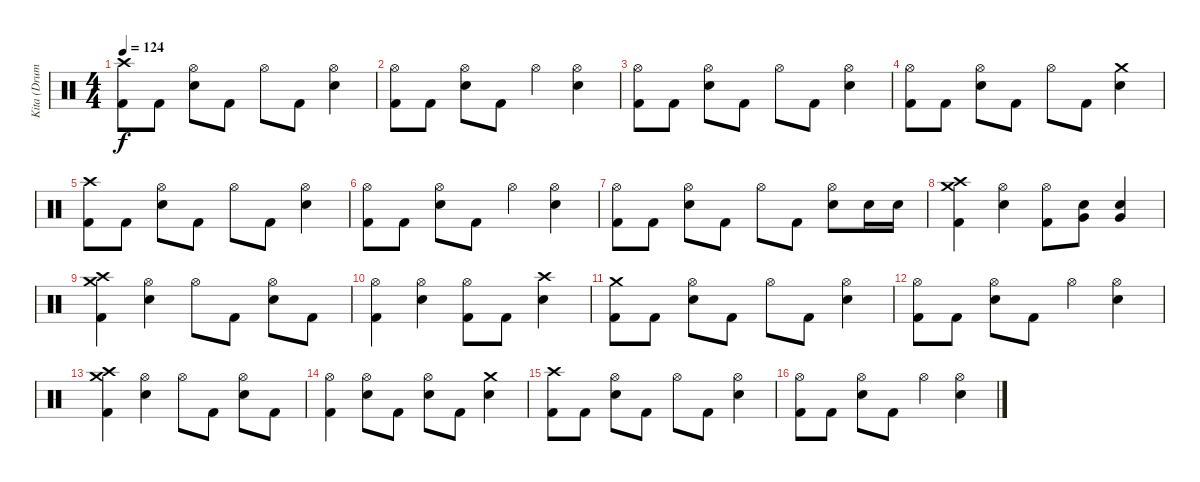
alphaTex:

\track ("Kita (Drums)" "Kita (Drum") {instrument percussion}
\staff {score}
\articulation defaults
\ts (4 4)
\tempo 124
\clef neutral
\ks c
("Crash high (hit)" "Kick (hit) 2").8{dy f} "Kick (hit) 2".8 ("Hi-Hat (open)" "Electric Snare (hit)").8 "Kick (hit) 2".8 "Hi-Hat (open)".8 "Kick (hit) 2".8 ("Hi-Hat (open)" "Electric Snare (hit)").4 |
("Hi-Hat (open)" "Kick (hit) 2").8 "Kick (hit) 2".8 ("Hi-Hat (open)" "Electric Snare (hit)").8 "Kick (hit) 2".8 "Hi-Hat (open)".4 ("Hi-Hat (open)" "Electric Snare (hit)").4 |
("Hi-Hat (open)" "Kick (hit) 2").8 "Kick (hit) 2".8 ("Hi-Hat (open)" "Electric Snare (hit)").8 "Kick (hit) 2".8 "Hi-Hat (open)".8 "Kick (hit) 2".8 ("Hi-Hat (open)" "Electric Snare (hit)").4 |
("Hi-Hat (open)" "Kick (hit) 2").8 "Kick (hit) 2".8 ("Hi-Hat (open)" "Electric Snare (hit)").8 "Kick (hit) 2".8 "Hi-Hat (open)".8 "Kick (hit) 2".8 ("Crash medium (hit)" "Electric Snare (hit)").4 |
("Crash high (hit)" "Kick (hit) 2").8 "Kick (hit) 2".8 ("Hi-Hat (open)" "Electric Snare (hit)").8 "Kick (hit) 2".8 "Hi-Hat (open)".8 "Kick (hit) 2".8 ("Hi-Hat (open)" "Electric Snare (hit)").4 |
("Hi-Hat (open)" "Kick (hit) 2").8 "Kick (hit) 2".8 ("Hi-Hat (open)" "Electric Snare (hit)").8 "Kick (hit) 2".8 "Hi-Hat (open)".4 ("Hi-Hat (open)" "Electric Snare (hit)").4 |
("Hi-Hat (open)" "Kick (hit) 2").8 "Kick (hit) 2".8 ("Hi-Hat (open)" "Electric Snare (hit)").8 "Kick (hit) 2".8 "Hi-Hat (open)".8 "Kick (hit) 2".8 ("Hi-Hat (open)" "Electric Snare (hit)").8 "Electric Snare (hit)".16 "Electric Snare (hit)".16 |
("Crash medium (hit)" "Crash high (hit)" "Kick (hit) 2").4 ("Hi-Hat (open)" "Electric Snare (hit)").4 ("Hi-Hat (open)" "Kick (hit) 2").8 ("Very Low Tom (hit)" "Electric Snare (hit)").8 ("Very Low Tom (hit)" "Electric Snare (hit)").4 |
("Crash medium (hit)" "Crash high (hit)" "Kick (hit) 2").4 ("Hi-Hat (open)" "Electric Snare (hit)").4 "Hi-Hat (open)".8 "Kick (hit) 2".8 ("Hi-Hat (open)" "Electric Snare (hit)").8 "Kick (hit) 2".8 |
("Hi-Hat (open)" "Kick (hit) 2").4 ("Hi-Hat (open)" "Electric Snare (hit)").4 ("Hi-Hat (open)" "Kick (hit) 2").8 "Kick (hit) 2".8 ("Crash high (hit)" "Electric Snare (hit)").4 |
("Crash medium (hit)" "Kick (hit) 2").8 "Kick (hit) 2".8 ("Hi-Hat (open)" "Electric Snare (hit)").8 "Kick (hit) 2".8 "Hi-Hat (open)".8 "Kick (hit) 2".8 ("Hi-Hat (open)" "Electric Snare (hit)").4 |
("Hi-Hat (open)" "Kick (hit) 2").8 "Kick (hit) 2".8 ("Hi-Hat (open)" "Electric Snare (hit)").8 "Kick (hit) 2".8 "Hi-Hat (open)".4 ("Hi-Hat (open)" "Electric Snare (hit)").4 |
("Crash medium (hit)" "Crash high (hit)" "Kick (hit) 2").4 ("Hi-Hat (open)" "Electric Snare (hit)").4 "Hi-Hat (open)".8 "Kick (hit) 2".8 ("Hi-Hat (open)" "Electric Snare (hit)").8 "Kick (hit) 2".8 |
("Hi-Hat (open)" "Kick (hit) 2").4 ("Hi-Hat (open)" "Electric Snare (hit)").8 "Kick (hit) 2".8 ("Hi-Hat (open)" "Electric Snare (hit)").8 "Kick (hit) 2".8 ("Crash medium (hit)" "Electric Snare (hit)").4 |
("Crash high (hit)" "Kick (hit) 2").8 "Kick (hit) 2".8 ("Hi-Hat (open)" "Electric Snare (hit)").8 "Kick (hit) 2".8 "Hi-Hat (open)".8 "Kick (hit) 2".8 ("Hi-Hat (open)" "Electric Snare (hit)").4 |
("Hi-Hat (open)" "Kick (hit) 2").8 "Kick (hit) 2".8 ("Hi-Hat (open)" "Electric Snare (hit)").8 "Kick (hit) 2".8 "Hi-Hat (open)".4 ("Hi-Hat (open)" "Electric Snare (hit)").4
